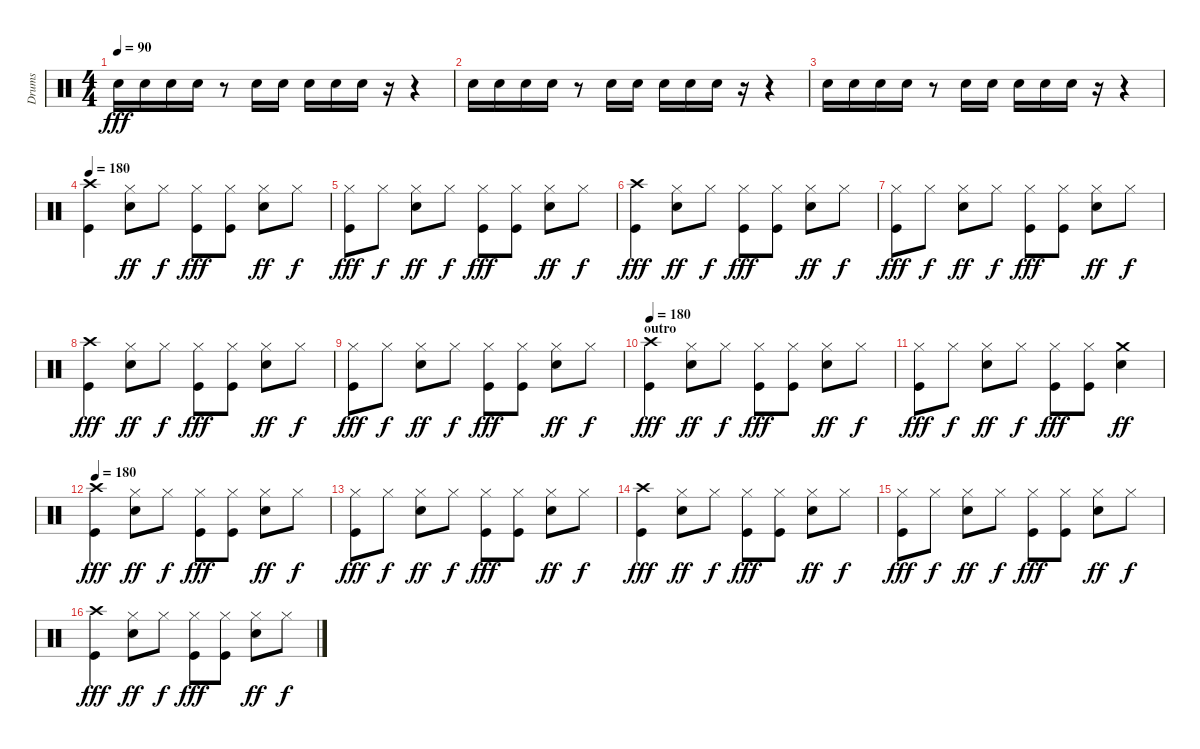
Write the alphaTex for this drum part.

\track ("Drums" "Drums") {instrument percussion}
\staff {score}
\articulation defaults
\ts (4 4)
\tempo 90
\clef neutral
\ks aminor "Snare (hit) 2".16{dy fff} "Snare (hit) 2".16 "Snare (hit) 2".16 "Snare (hit) 2".16
r.8 "Snare (hit) 2".16 "Snare (hit) 2".16 "Snare (hit) 2".16 "Snare (hit) 2".16 "Snare (hit) 2".16 r.16 r.4 |
"Snare (hit) 2".16 "Snare (hit) 2".16 "Snare (hit) 2".16 "Snare (hit) 2".16 r.8 "Snare (hit) 2".16 "Snare (hit) 2".16 "Snare (hit) 2".16 "Snare (hit) 2".16 "Snare (hit) 2".16 r.16 r.4 |
"Snare (hit) 2".16 "Snare (hit) 2".16 "Snare (hit) 2".16 "Snare (hit) 2".16 r.8 "Snare (hit) 2".16 "Snare (hit) 2".16 "Snare (hit) 2".16 "Snare (hit) 2".16 "Snare (hit) 2".16 r.16 r.4 |
\tempo 180
("Crash high (hit)" "Kick (hit)").4 ("Hi-Hat (closed)" "Snare (hit) 2").8{dy ff} "Hi-Hat (closed)".8{dy f} ("Hi-Hat (closed)" "Kick (hit)").8{dy fff} ("Hi-Hat (closed)" "Kick (hit)").8 ("Hi-Hat (closed)" "Snare (hit) 2").8{dy ff} "Hi-Hat (closed)".8{dy f} |
("Hi-Hat (closed)" "Kick (hit)").8{dy fff} "Hi-Hat (closed)".8{dy f} ("Hi-Hat (closed)" "Snare (hit) 2").8{dy ff} "Hi-Hat (closed)".8{dy f} ("Hi-Hat (closed)" "Kick (hit)").8{dy fff} ("Hi-Hat (closed)" "Kick (hit)").8 ("Hi-Hat (closed)" "Snare (hit) 2").8{dy ff} "Hi-Hat (closed)".8{dy f} |
("Crash high (hit)" "Kick (hit)").4{dy fff} ("Hi-Hat (closed)" "Snare (hit) 2").8{dy ff} "Hi-Hat (closed)".8{dy f} ("Hi-Hat (closed)" "Kick (hit)").8{dy fff} ("Hi-Hat (closed)" "Kick (hit)").8 ("Hi-Hat (closed)" "Snare (hit) 2").8{dy ff} "Hi-Hat (closed)".8{dy f} |
("Hi-Hat (closed)" "Kick (hit)").8{dy fff} "Hi-Hat (closed)".8{dy f} ("Hi-Hat (closed)" "Snare (hit) 2").8{dy ff} "Hi-Hat (closed)".8{dy f} ("Hi-Hat (closed)" "Kick (hit)").8{dy fff} ("Hi-Hat (closed)" "Kick (hit)").8 ("Hi-Hat (closed)" "Snare (hit) 2").8{dy ff} "Hi-Hat (closed)".8{dy f} |
("Crash high (hit)" "Kick (hit)").4{dy fff} ("Hi-Hat (closed)" "Snare (hit) 2").8{dy ff} "Hi-Hat (closed)".8{dy f} ("Hi-Hat (closed)" "Kick (hit)").8{dy fff} ("Hi-Hat (closed)" "Kick (hit)").8 ("Hi-Hat (closed)" "Snare (hit) 2").8{dy ff} "Hi-Hat (closed)".8{dy f} |
("Hi-Hat (closed)" "Kick (hit)").8{dy fff} "Hi-Hat (closed)".8{dy f} ("Hi-Hat (closed)" "Snare (hit) 2").8{dy ff} "Hi-Hat (closed)".8{dy f} ("Hi-Hat (closed)" "Kick (hit)").8{dy fff} ("Hi-Hat (closed)" "Kick (hit)").8 ("Hi-Hat (closed)" "Snare (hit) 2").8{dy ff} "Hi-Hat (closed)".8{dy f} |
\section ("" "outro")
\tempo 180
("Crash high (hit)" "Kick (hit)").4{dy fff} ("Hi-Hat (closed)" "Snare (hit) 2").8{dy ff} "Hi-Hat (closed)".8{dy f} ("Hi-Hat (closed)" "Kick (hit)").8{dy fff} ("Hi-Hat (closed)" "Kick (hit)").8 ("Hi-Hat (closed)" "Snare (hit) 2").8{dy ff} "Hi-Hat (closed)".8{dy f} |
("Hi-Hat (closed)" "Kick (hit)").8{dy fff} "Hi-Hat (closed)".8{dy f} ("Hi-Hat (closed)" "Snare (hit) 2").8{dy ff} "Hi-Hat (closed)".8{dy f} ("Hi-Hat (closed)" "Kick (hit)").8{dy fff} ("Hi-Hat (closed)" "Kick (hit)").8 ("Crash medium (hit)" "Snare (hit) 2").4{dy ff} |
\tempo 180
("Crash high (hit)" "Kick (hit)").4{dy fff} ("Hi-Hat (closed)" "Snare (hit) 2").8{dy ff} "Hi-Hat (closed)".8{dy f} ("Hi-Hat (closed)" "Kick (hit)").8{dy fff} ("Hi-Hat (closed)" "Kick (hit)").8 ("Hi-Hat (closed)" "Snare (hit) 2").8{dy ff} "Hi-Hat (closed)".8{dy f} |
("Hi-Hat (closed)" "Kick (hit)").8{dy fff} "Hi-Hat (closed)".8{dy f} ("Hi-Hat (closed)" "Snare (hit) 2").8{dy ff} "Hi-Hat (closed)".8{dy f} ("Hi-Hat (closed)" "Kick (hit)").8{dy fff} ("Hi-Hat (closed)" "Kick (hit)").8 ("Hi-Hat (closed)" "Snare (hit) 2").8{dy ff} "Hi-Hat (closed)".8{dy f} |
("Crash high (hit)" "Kick (hit)").4{dy fff} ("Hi-Hat (closed)" "Snare (hit) 2").8{dy ff} "Hi-Hat (closed)".8{dy f} ("Hi-Hat (closed)" "Kick (hit)").8{dy fff} ("Hi-Hat (closed)" "Kick (hit)").8 ("Hi-Hat (closed)" "Snare (hit) 2").8{dy ff} "Hi-Hat (closed)".8{dy f} |
("Hi-Hat (closed)" "Kick (hit)").8{dy fff} "Hi-Hat (closed)".8{dy f} ("Hi-Hat (closed)" "Snare (hit) 2").8{dy ff} "Hi-Hat (closed)".8{dy f} ("Hi-Hat (closed)" "Kick (hit)").8{dy fff} ("Hi-Hat (closed)" "Kick (hit)").8 ("Hi-Hat (closed)" "Snare (hit) 2").8{dy ff} "Hi-Hat (closed)".8{dy f} |
("Crash high (hit)" "Kick (hit)").4{dy fff} ("Hi-Hat (closed)" "Snare (hit) 2").8{dy ff} "Hi-Hat (closed)".8{dy f} ("Hi-Hat (closed)" "Kick (hit)").8{dy fff} ("Hi-Hat (closed)" "Kick (hit)").8 ("Hi-Hat (closed)" "Snare (hit) 2").8{dy ff} "Hi-Hat (closed)".8{dy f}
